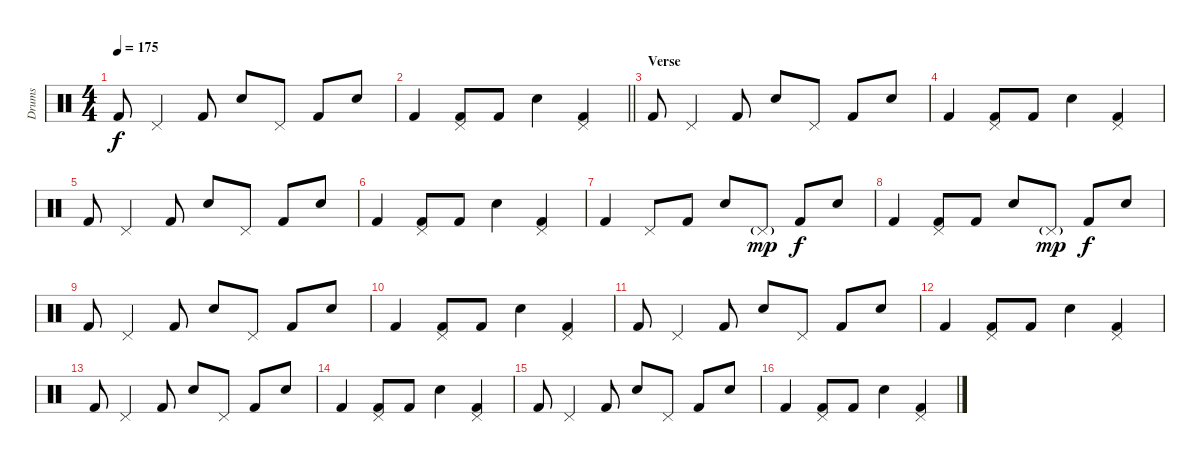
\track ("Drums" "Drums") {instrument percussion}
\staff {score}
\articulation defaults
\ts (4 4)
\tempo 175
\clef neutral
\ks c "Kick (hit) 2".8{dy f} "Pedal Hi-Hat (hit)".4 "Kick (hit) 2".8 "Electric Snare (hit)".8 "Pedal Hi-Hat (hit)".8 "Kick (hit) 2".8 "Electric Snare (hit)".8
|
\barLineRight lightlight "Kick (hit) 2".4
("Pedal Hi-Hat (hit)" "Kick (hit) 2").8 "Kick (hit) 2".8 "Electric Snare (hit)".4 ("Pedal Hi-Hat (hit)" "Kick (hit) 2").4 |
\section ("" "Verse")
"Kick (hit) 2".8 "Pedal Hi-Hat (hit)".4 "Kick (hit) 2".8 "Electric Snare (hit)".8 "Pedal Hi-Hat (hit)".8 "Kick (hit) 2".8 "Electric Snare (hit)".8 |
"Kick (hit) 2".4 ("Pedal Hi-Hat (hit)" "Kick (hit) 2").8 "Kick (hit) 2".8 "Electric Snare (hit)".4 ("Pedal Hi-Hat (hit)" "Kick (hit) 2").4 |
"Kick (hit) 2".8 "Pedal Hi-Hat (hit)".4 "Kick (hit) 2".8 "Electric Snare (hit)".8 "Pedal Hi-Hat (hit)".8 "Kick (hit) 2".8 "Electric Snare (hit)".8 |
"Kick (hit) 2".4 ("Pedal Hi-Hat (hit)" "Kick (hit) 2").8 "Kick (hit) 2".8 "Electric Snare (hit)".4 ("Pedal Hi-Hat (hit)" "Kick (hit) 2").4 |
"Kick (hit) 2".4 "Pedal Hi-Hat (hit)".8 "Kick (hit) 2".8 "Electric Snare (hit)".8 "Pedal Hi-Hat (hit)"{g}.8{dy mp} "Kick (hit) 2".8{dy f} "Electric Snare (hit)".8 |
"Kick (hit) 2".4 ("Pedal Hi-Hat (hit)" "Kick (hit) 2").8 "Kick (hit) 2".8 "Electric Snare (hit)".8 "Pedal Hi-Hat (hit)"{g}.8{dy mp} "Kick (hit) 2".8{dy f} "Electric Snare (hit)".8 |
"Kick (hit) 2".8 "Pedal Hi-Hat (hit)".4 "Kick (hit) 2".8 "Electric Snare (hit)".8 "Pedal Hi-Hat (hit)".8 "Kick (hit) 2".8 "Electric Snare (hit)".8 |
"Kick (hit) 2".4 ("Pedal Hi-Hat (hit)" "Kick (hit) 2").8 "Kick (hit) 2".8 "Electric Snare (hit)".4 ("Pedal Hi-Hat (hit)" "Kick (hit) 2").4 |
"Kick (hit) 2".8 "Pedal Hi-Hat (hit)".4 "Kick (hit) 2".8 "Electric Snare (hit)".8 "Pedal Hi-Hat (hit)".8 "Kick (hit) 2".8 "Electric Snare (hit)".8 |
"Kick (hit) 2".4 ("Pedal Hi-Hat (hit)" "Kick (hit) 2").8 "Kick (hit) 2".8 "Electric Snare (hit)".4 ("Pedal Hi-Hat (hit)" "Kick (hit) 2").4 |
"Kick (hit) 2".8 "Pedal Hi-Hat (hit)".4 "Kick (hit) 2".8 "Electric Snare (hit)".8 "Pedal Hi-Hat (hit)".8 "Kick (hit) 2".8 "Electric Snare (hit)".8 |
"Kick (hit) 2".4 ("Pedal Hi-Hat (hit)" "Kick (hit) 2").8 "Kick (hit) 2".8 "Electric Snare (hit)".4 ("Pedal Hi-Hat (hit)" "Kick (hit) 2").4 |
"Kick (hit) 2".8 "Pedal Hi-Hat (hit)".4 "Kick (hit) 2".8 "Electric Snare (hit)".8 "Pedal Hi-Hat (hit)".8 "Kick (hit) 2".8 "Electric Snare (hit)".8 |
"Kick (hit) 2".4 ("Pedal Hi-Hat (hit)" "Kick (hit) 2").8 "Kick (hit) 2".8 "Electric Snare (hit)".4 ("Pedal Hi-Hat (hit)" "Kick (hit) 2").4
